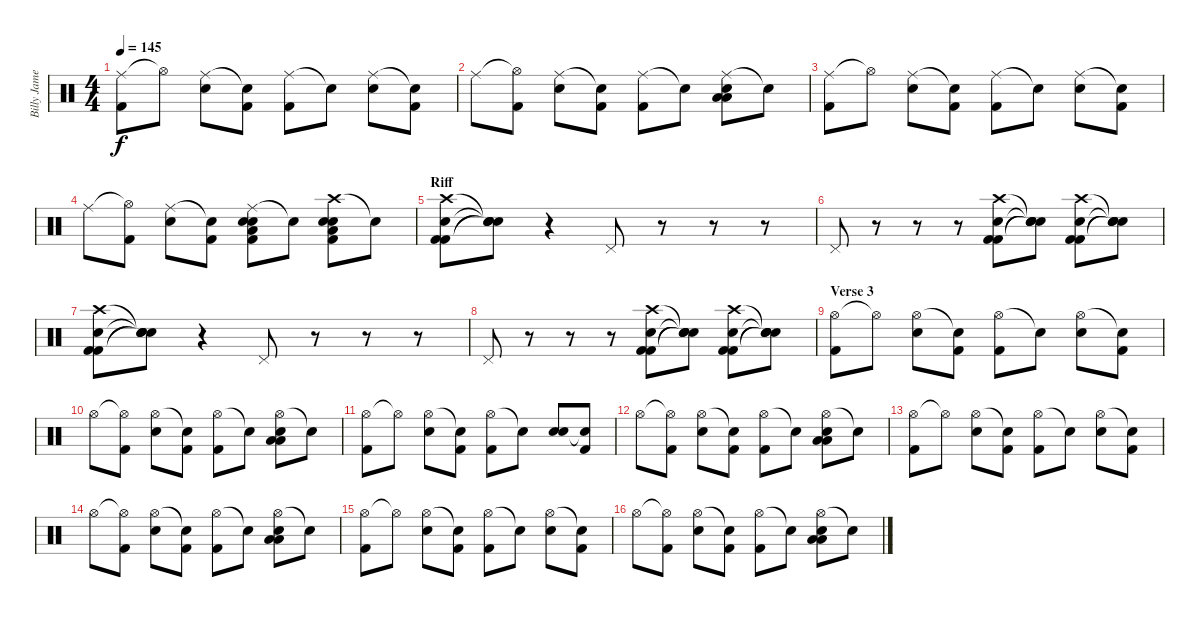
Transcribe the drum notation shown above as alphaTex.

\track ("Billy James (Drums)" "Billy Jame") {instrument percussion}
\staff {score}
\articulation defaults
\ts (4 4)
\tempo 145
\clef neutral
\ks c
("Ride (middle)" "Kick (hit) 2").8{dy f} "Hi-Hat (open)"{t}.8 ("Ride (middle)" "Snare (hit) 2").8 ("Snare (hit)"{t} "Kick (hit) 2").8 ("Ride (middle)" "Kick (hit) 2").8 "Snare (hit)"{t}.8 ("Ride (middle)" "Snare (hit) 2").8 ("Snare (hit)"{t} "Kick (hit) 2").8 |
"Ride (middle)".8 ("Hi-Hat (open)"{t} "Kick (hit) 2").8 ("Ride (middle)" "Snare (hit) 2").8 ("Snare (hit)"{t} "Kick (hit) 2").8 ("Ride (middle)" "Kick (hit) 2").8 "Snare (hit)"{t}.8 ("Ride (middle)" "Low Floor Tom (hit)" "Low Floor Tom (hit)" "Snare (hit) 2").8 "Snare (hit)"{t}.8 |
("Ride (middle)" "Kick (hit) 2").8 "Hi-Hat (open)"{t}.8 ("Ride (middle)" "Snare (hit) 2").8 ("Snare (hit)"{t} "Kick (hit) 2").8 ("Ride (middle)" "Kick (hit) 2").8 "Snare (hit)"{t}.8 ("Ride (middle)" "Snare (hit) 2").8 ("Snare (hit)"{t} "Kick (hit) 2").8 |
"Ride (middle)".8 ("Hi-Hat (open)"{t} "Kick (hit) 2").8 ("Ride (middle)" "Snare (hit) 2").8 ("Snare (hit)"{t} "Kick (hit) 2").8 ("Ride (middle)" "Low Floor Tom (hit)" "Snare (hit) 2" "Kick (hit) 2" "Snare (hit) 2").8 "Snare (hit)"{t}.8 ("Crash high (hit)" "Kick (hit) 2" "Low Floor Tom (hit)" "Snare (hit) 2" "Snare (hit) 2").8 "Snare (hit)"{t}.8 |
\section ("" "Riff")
("Crash high (hit)" "Kick (hit) 2" "Kick (hit) 2" "Snare (hit) 2").8 ("Snare (hit)"{t} "Snare (hit)"{t} "Snare (hit)"{t} "Snare (hit)"{t}).8 r.4 "Pedal Hi-Hat (hit)".8 r.8 r.8 r.8 |
"Pedal Hi-Hat (hit)".8 r.8 r.8 r.8 ("Snare (hit) 2" "Kick (hit) 2" "Crash high (hit)" "Kick (hit) 2").8 ("Snare (hit)"{t} "Snare (hit)"{t} "Snare (hit)"{t} "Snare (hit)"{t}).8 ("Crash high (hit)" "Kick (hit) 2" "Kick (hit) 2" "Snare (hit) 2").8 ("Snare (hit)"{t} "Snare (hit)"{t} "Snare (hit)"{t} "Snare (hit)"{t}).8 |
("Crash high (hit)" "Kick (hit) 2" "Kick (hit) 2" "Snare (hit) 2").8 ("Snare (hit)"{t} "Snare (hit)"{t} "Snare (hit)"{t} "Snare (hit)"{t}).8 r.4 "Pedal Hi-Hat (hit)".8 r.8 r.8 r.8 |
"Pedal Hi-Hat (hit)".8 r.8 r.8 r.8 ("Snare (hit) 2" "Kick (hit) 2" "Crash high (hit)" "Kick (hit) 2").8 ("Snare (hit)"{t} "Snare (hit)"{t} "Snare (hit)"{t} "Snare (hit)"{t}).8 ("Crash high (hit)" "Kick (hit) 2" "Kick (hit) 2" "Snare (hit) 2").8 ("Snare (hit)"{t} "Snare (hit)"{t} "Snare (hit)"{t} "Snare (hit)"{t}).8 |
\section ("" "Verse 3")
("Hi-Hat (open)" "Kick (hit) 2").8 "Hi-Hat (open)"{t}.8 ("Hi-Hat (open)" "Snare (hit) 2").8 ("Snare (hit)"{t} "Kick (hit) 2").8 ("Hi-Hat (open)" "Kick (hit) 2").8 "Snare (hit)"{t}.8 ("Hi-Hat (open)" "Snare (hit) 2").8 ("Snare (hit)"{t} "Kick (hit) 2").8 |
"Hi-Hat (open)".8 ("Hi-Hat (open)"{t} "Kick (hit) 2").8 ("Hi-Hat (open)" "Snare (hit) 2").8 ("Snare (hit)"{t} "Kick (hit) 2").8 ("Hi-Hat (open)" "Kick (hit) 2").8 "Snare (hit)"{t}.8 ("Hi-Hat (open)" "Low Floor Tom (hit)" "Low Floor Tom (hit)" "Snare (hit) 2").8 "Snare (hit)"{t}.8 |
("Hi-Hat (open)" "Kick (hit) 2").8 "Hi-Hat (open)"{t}.8 ("Hi-Hat (open)" "Snare (hit) 2").8 ("Snare (hit)"{t} "Kick (hit) 2").8 ("Hi-Hat (open)" "Kick (hit) 2").8 "Snare (hit)"{t}.8 ("Snare (hit)" "Snare (hit) 2").8 ("Snare (hit)"{t} "Kick (hit) 2").8 |
"Hi-Hat (open)".8 ("Hi-Hat (open)"{t} "Kick (hit) 2").8 ("Hi-Hat (open)" "Snare (hit) 2").8 ("Snare (hit)"{t} "Kick (hit) 2").8 ("Hi-Hat (open)" "Kick (hit) 2").8 "Snare (hit)"{t}.8 ("Hi-Hat (open)" "Low Floor Tom (hit)" "Low Floor Tom (hit)" "Snare (hit) 2").8 "Snare (hit)"{t}.8 |
("Hi-Hat (open)" "Kick (hit) 2").8 "Hi-Hat (open)"{t}.8 ("Hi-Hat (open)" "Snare (hit) 2").8 ("Snare (hit)"{t} "Kick (hit) 2").8 ("Hi-Hat (open)" "Kick (hit) 2").8 "Snare (hit)"{t}.8 ("Hi-Hat (open)" "Snare (hit) 2").8 ("Snare (hit)"{t} "Kick (hit) 2").8 |
"Hi-Hat (open)".8 ("Hi-Hat (open)"{t} "Kick (hit) 2").8 ("Hi-Hat (open)" "Snare (hit) 2").8 ("Snare (hit)"{t} "Kick (hit) 2").8 ("Hi-Hat (open)" "Kick (hit) 2").8 "Snare (hit)"{t}.8 ("Hi-Hat (open)" "Low Floor Tom (hit)" "Low Floor Tom (hit)" "Snare (hit) 2").8 "Snare (hit)"{t}.8 |
("Hi-Hat (open)" "Kick (hit) 2").8 "Hi-Hat (open)"{t}.8 ("Hi-Hat (open)" "Snare (hit) 2").8 ("Snare (hit)"{t} "Kick (hit) 2").8 ("Hi-Hat (open)" "Kick (hit) 2").8 "Snare (hit)"{t}.8 ("Hi-Hat (open)" "Snare (hit) 2").8 ("Snare (hit)"{t} "Kick (hit) 2").8 |
"Hi-Hat (open)".8 ("Hi-Hat (open)"{t} "Kick (hit) 2").8 ("Hi-Hat (open)" "Snare (hit) 2").8 ("Snare (hit)"{t} "Kick (hit) 2").8 ("Hi-Hat (open)" "Kick (hit) 2").8 "Snare (hit)"{t}.8 ("Hi-Hat (open)" "Low Floor Tom (hit)" "Low Floor Tom (hit)" "Snare (hit) 2").8 "Snare (hit)"{t}.8
